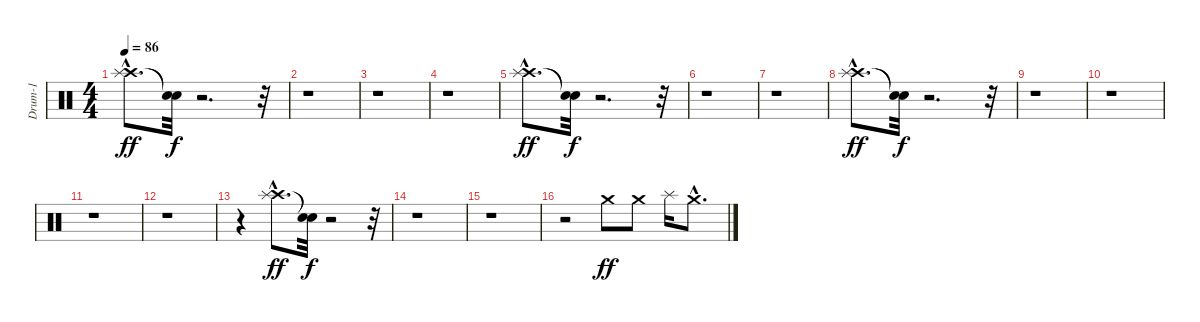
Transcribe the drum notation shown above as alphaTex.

\track ("Drum-1" "Drum-1") {instrument percussion}
\staff {score}
\articulation defaults
\ts (4 4)
\tempo 86
\clef neutral
\ks c
("Crash high (hit)"{hac} "Splash (hit)"{hac}).8{d dy ff} ("Snare (hit)"{t} "Snare (hit)"{t}).32{dy f} r.2{d} r.32 |
r.1 |
r.1 |
r.1 |
("Crash high (hit)"{hac} "Splash (hit)"{hac}).8{d dy ff} ("Snare (hit)"{t} "Snare (hit)"{t}).32{dy f} r.2{d} r.32 |
r.1 |
r.1 |
("Crash high (hit)"{hac} "Splash (hit)"{hac}).8{d dy ff} ("Snare (hit)"{t} "Snare (hit)"{t}).32{dy f} r.2{d} r.32 |
r.1 |
r.1 |
r.1 |
r.1 |
r.4 ("Crash high (hit)"{hac} "Splash (hit)"{hac}).8{d dy ff} ("Snare (hit)"{t} "Snare (hit)"{t}).32{dy f} r.2 r.32 |
r.1 |
r.1 |
r.2 "Crash medium (hit)".8{dy ff} "Crash medium (hit)".8 "Splash (hit)".16 "Crash medium (hit)"{hac}.8{d}
